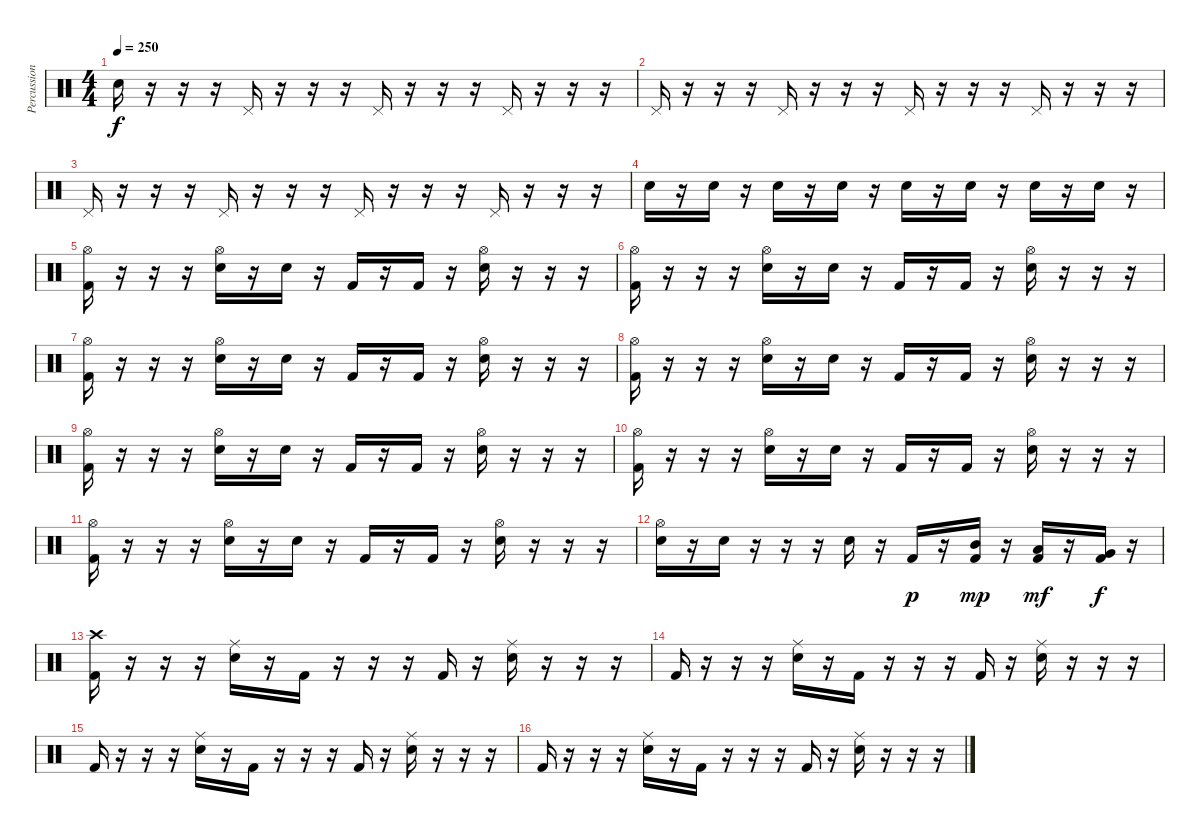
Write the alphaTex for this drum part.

\track ("Percussion" "Percussion") {instrument percussion}
\staff {score}
\articulation defaults
\ts (4 4)
\tempo 250
\clef neutral
\ks c "Snare (hit) 2".16{dy f}
r.16 r.16 r.16 "Pedal Hi-Hat (hit)".16 r.16 r.16 r.16 "Pedal Hi-Hat (hit)".16 r.16 r.16 r.16 "Pedal Hi-Hat (hit)".16 r.16 r.16 r.16 |
"Pedal Hi-Hat (hit)".16 r.16 r.16 r.16 "Pedal Hi-Hat (hit)".16 r.16 r.16 r.16 "Pedal Hi-Hat (hit)".16 r.16 r.16 r.16 "Pedal Hi-Hat (hit)".16 r.16 r.16 r.16 |
"Pedal Hi-Hat (hit)".16 r.16 r.16 r.16 "Pedal Hi-Hat (hit)".16 r.16 r.16 r.16 "Pedal Hi-Hat (hit)".16 r.16 r.16 r.16 "Pedal Hi-Hat (hit)".16 r.16 r.16 r.16 |
"Snare (hit) 2".16 r.16 "Snare (hit) 2".16 r.16 "Snare (hit) 2".16 r.16 "Snare (hit) 2".16 r.16 "Snare (hit) 2".16 r.16 "Snare (hit) 2".16 r.16 "Snare (hit) 2".16 r.16 "Snare (hit) 2".16 r.16 |
("Hi-Hat (open)" "Kick (hit) 2").16 r.16 r.16 r.16 ("Hi-Hat (open)" "Snare (hit) 2").16 r.16 "Snare (hit) 2".16 r.16 "Kick (hit) 2".16 r.16 "Kick (hit) 2".16 r.16 ("Hi-Hat (open)" "Snare (hit) 2").16 r.16 r.16 r.16 |
("Hi-Hat (open)" "Kick (hit) 2").16 r.16 r.16 r.16 ("Hi-Hat (open)" "Snare (hit) 2").16 r.16 "Snare (hit) 2".16 r.16 "Kick (hit) 2".16 r.16 "Kick (hit) 2".16 r.16 ("Hi-Hat (open)" "Snare (hit) 2").16 r.16 r.16 r.16 |
("Hi-Hat (open)" "Kick (hit) 2").16 r.16 r.16 r.16 ("Hi-Hat (open)" "Snare (hit) 2").16 r.16 "Snare (hit) 2".16 r.16 "Kick (hit) 2".16 r.16 "Kick (hit) 2".16 r.16 ("Hi-Hat (open)" "Snare (hit) 2").16 r.16 r.16 r.16 |
("Hi-Hat (open)" "Kick (hit) 2").16 r.16 r.16 r.16 ("Hi-Hat (open)" "Snare (hit) 2").16 r.16 "Snare (hit) 2".16 r.16 "Kick (hit) 2".16 r.16 "Kick (hit) 2".16 r.16 ("Hi-Hat (open)" "Snare (hit) 2").16 r.16 r.16 r.16 |
("Hi-Hat (open)" "Kick (hit) 2").16 r.16 r.16 r.16 ("Hi-Hat (open)" "Snare (hit) 2").16 r.16 "Snare (hit) 2".16 r.16 "Kick (hit) 2".16 r.16 "Kick (hit) 2".16 r.16 ("Hi-Hat (open)" "Snare (hit) 2").16 r.16 r.16 r.16 |
("Hi-Hat (open)" "Kick (hit) 2").16 r.16 r.16 r.16 ("Hi-Hat (open)" "Snare (hit) 2").16 r.16 "Snare (hit) 2".16 r.16 "Kick (hit) 2".16 r.16 "Kick (hit) 2".16 r.16 ("Hi-Hat (open)" "Snare (hit) 2").16 r.16 r.16 r.16 |
("Hi-Hat (open)" "Kick (hit) 2").16 r.16 r.16 r.16 ("Hi-Hat (open)" "Snare (hit) 2").16 r.16 "Snare (hit) 2".16 r.16 "Kick (hit) 2".16 r.16 "Kick (hit) 2".16 r.16 ("Hi-Hat (open)" "Snare (hit) 2").16 r.16 r.16 r.16 |
("Hi-Hat (open)" "Snare (hit) 2").16 r.16 "Snare (hit) 2".16 r.16 r.16 r.16 "Snare (hit) 2".16 r.16 "Kick (hit) 2".16{dy p} r.16 ("Mid Tom (hit)" "Kick (hit) 2").16{dy mp} r.16 ("Low Tom (hit)" "Kick (hit) 2").16{dy mf} r.16 ("Very Low Tom (hit)" "Kick (hit) 2").16{dy f} r.16 |
("Crash high (hit)" "Kick (hit) 2").16 r.16 r.16 r.16 ("Ride (middle)" "Snare (hit) 2").16 r.16 "Kick (hit) 2".16 r.16 r.16 r.16 "Kick (hit) 2".16 r.16 ("Ride (middle)" "Snare (hit) 2").16 r.16 r.16 r.16 |
"Kick (hit) 2".16 r.16 r.16 r.16 ("Ride (middle)" "Snare (hit) 2").16 r.16 "Kick (hit) 2".16 r.16 r.16 r.16 "Kick (hit) 2".16 r.16 ("Ride (middle)" "Snare (hit) 2").16 r.16 r.16 r.16 |
"Kick (hit) 2".16 r.16 r.16 r.16 ("Ride (middle)" "Snare (hit) 2").16 r.16 "Kick (hit) 2".16 r.16 r.16 r.16 "Kick (hit) 2".16 r.16 ("Ride (middle)" "Snare (hit) 2").16 r.16 r.16 r.16 |
"Kick (hit) 2".16 r.16 r.16 r.16 ("Ride (middle)" "Snare (hit) 2").16 r.16 "Kick (hit) 2".16 r.16 r.16 r.16 "Kick (hit) 2".16 r.16 ("Ride (middle)" "Snare (hit) 2").16 r.16 r.16 r.16
